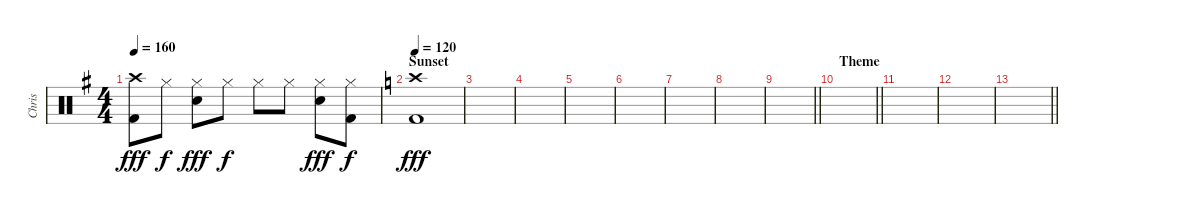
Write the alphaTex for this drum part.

\track ("Chris" "Chris") {instrument percussion}
\staff {score}
\articulation defaults
\ts (4 4)
\tempo 160
\clef neutral
\ks eminor
("Crash high (hit)" "Kick (hit) 2").8{dy fff} "Hi-Hat (closed)".8{dy f} ("Hi-Hat (closed)" "Snare (hit) 2").8{dy fff} "Hi-Hat (closed)".8{dy f} "Hi-Hat (closed)".8 "Hi-Hat (closed)".8 ("Hi-Hat (closed)" "Snare (hit) 2").8{dy fff} ("Hi-Hat (closed)" "Kick (hit) 2").8{dy f} |
\section ("" "Sunset")
\tempo 120
\ks c
("Crash high (hit)" "Kick (hit) 2").1{dy fff} |
|
|
|
|
|
|
\barLineRight lightlight
|
\section ("" "Theme")
\barLineRight lightlight
|
|
|
\barLineRight lightlight
